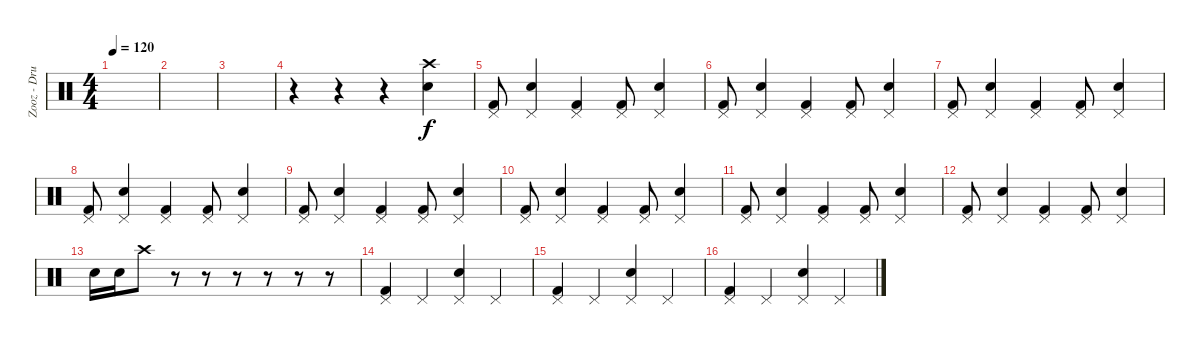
\track ("Zooz - Drums" "Zooz - Dru") {instrument percussion}
\staff {score}
\articulation defaults
\ts (4 4)
\tempo 120
\clef neutral
\ks c
|
|
|
r.4 r.4 r.4 ("Crash high (hit)" "Electric Snare (hit)").4 |
("Pedal Hi-Hat (hit)" "Kick (hit) 2").8 ("Pedal Hi-Hat (hit)" "Electric Snare (hit)").4 ("Pedal Hi-Hat (hit)" "Kick (hit) 2").4 ("Pedal Hi-Hat (hit)" "Kick (hit) 2").8 ("Electric Snare (hit)" "Pedal Hi-Hat (hit)").4 |
("Pedal Hi-Hat (hit)" "Kick (hit) 2").8 ("Pedal Hi-Hat (hit)" "Electric Snare (hit)").4 ("Pedal Hi-Hat (hit)" "Kick (hit) 2").4 ("Pedal Hi-Hat (hit)" "Kick (hit) 2").8 ("Electric Snare (hit)" "Pedal Hi-Hat (hit)").4 |
("Pedal Hi-Hat (hit)" "Kick (hit) 2").8 ("Pedal Hi-Hat (hit)" "Electric Snare (hit)").4 ("Pedal Hi-Hat (hit)" "Kick (hit) 2").4 ("Pedal Hi-Hat (hit)" "Kick (hit) 2").8 ("Electric Snare (hit)" "Pedal Hi-Hat (hit)").4 |
("Pedal Hi-Hat (hit)" "Kick (hit) 2").8 ("Pedal Hi-Hat (hit)" "Electric Snare (hit)").4 ("Pedal Hi-Hat (hit)" "Kick (hit) 2").4 ("Pedal Hi-Hat (hit)" "Kick (hit) 2").8 ("Electric Snare (hit)" "Pedal Hi-Hat (hit)").4 |
("Pedal Hi-Hat (hit)" "Kick (hit) 2").8 ("Pedal Hi-Hat (hit)" "Electric Snare (hit)").4 ("Pedal Hi-Hat (hit)" "Kick (hit) 2").4 ("Pedal Hi-Hat (hit)" "Kick (hit) 2").8 ("Electric Snare (hit)" "Pedal Hi-Hat (hit)").4 |
("Pedal Hi-Hat (hit)" "Kick (hit) 2").8 ("Pedal Hi-Hat (hit)" "Electric Snare (hit)").4 ("Pedal Hi-Hat (hit)" "Kick (hit) 2").4 ("Pedal Hi-Hat (hit)" "Kick (hit) 2").8 ("Electric Snare (hit)" "Pedal Hi-Hat (hit)").4 |
("Pedal Hi-Hat (hit)" "Kick (hit) 2").8 ("Pedal Hi-Hat (hit)" "Electric Snare (hit)").4 ("Pedal Hi-Hat (hit)" "Kick (hit) 2").4 ("Pedal Hi-Hat (hit)" "Kick (hit) 2").8 ("Electric Snare (hit)" "Pedal Hi-Hat (hit)").4 |
("Pedal Hi-Hat (hit)" "Kick (hit) 2").8 ("Pedal Hi-Hat (hit)" "Electric Snare (hit)").4 ("Pedal Hi-Hat (hit)" "Kick (hit) 2").4 ("Pedal Hi-Hat (hit)" "Kick (hit) 2").8 ("Electric Snare (hit)" "Pedal Hi-Hat (hit)").4 |
"Electric Snare (hit)".16 "Electric Snare (hit)".16 "Crash high (hit)".8 r.8 r.8 r.8 r.8 r.8 r.8 |
("Pedal Hi-Hat (hit)" "Kick (hit) 2").4 "Pedal Hi-Hat (hit)".4 ("Pedal Hi-Hat (hit)" "Electric Snare (hit)").4 "Pedal Hi-Hat (hit)".4 |
("Pedal Hi-Hat (hit)" "Kick (hit) 2").4 "Pedal Hi-Hat (hit)".4 ("Pedal Hi-Hat (hit)" "Electric Snare (hit)").4 "Pedal Hi-Hat (hit)".4 |
("Pedal Hi-Hat (hit)" "Kick (hit) 2").4 "Pedal Hi-Hat (hit)".4 ("Pedal Hi-Hat (hit)" "Electric Snare (hit)").4 "Pedal Hi-Hat (hit)".4
